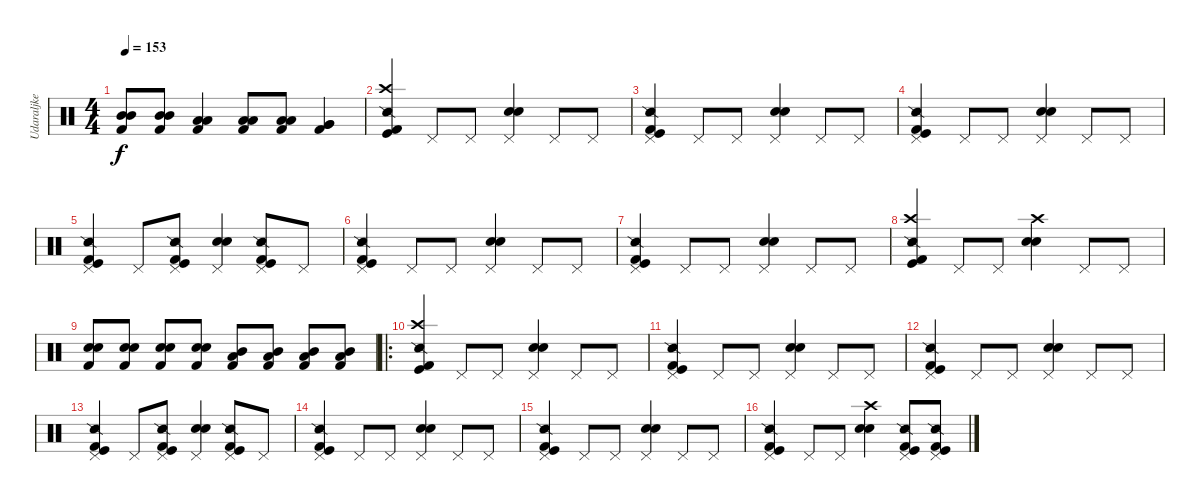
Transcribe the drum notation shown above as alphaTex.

\track ("Udaraljke" "Udaraljke") {instrument percussion}
\staff {score}
\articulation defaults
\ts (4 4)
\tempo 153
\clef neutral
\ks c
("Mid Tom (hit)" "Mid Tom (hit)" "Kick (hit) 2").8{dy f} ("Mid Tom (hit)" "Mid Tom (hit)" "Kick (hit) 2").8 ("Low Tom (hit)" "Low Tom (hit)" "Kick (hit) 2").4 ("Low Tom (hit)" "Low Tom (hit)" "Kick (hit) 2").8 ("Low Tom (hit)" "Low Tom (hit)" "Kick (hit) 2").8 ("Very Low Tom (hit)" "Very Low Tom (hit)" "Kick (hit) 2").4 |
("Crash high (hit)" "Kick (hit) 2" "Kick (hit)" "Snare (side stick) 2").4 "Pedal Hi-Hat (hit)".8 "Pedal Hi-Hat (hit)".8 ("Pedal Hi-Hat (hit)" "Electric Snare (hit)" "Snare (hit) 2").4 "Pedal Hi-Hat (hit)".8 "Pedal Hi-Hat (hit)".8 |
("Pedal Hi-Hat (hit)" "Kick (hit) 2" "Kick (hit)" "Snare (side stick) 2").4 "Pedal Hi-Hat (hit)".8 "Pedal Hi-Hat (hit)".8 ("Pedal Hi-Hat (hit)" "Electric Snare (hit)" "Snare (hit) 2").4 "Pedal Hi-Hat (hit)".8 "Pedal Hi-Hat (hit)".8 |
("Pedal Hi-Hat (hit)" "Kick (hit) 2" "Kick (hit)" "Snare (side stick) 2").4 "Pedal Hi-Hat (hit)".8 "Pedal Hi-Hat (hit)".8 ("Pedal Hi-Hat (hit)" "Electric Snare (hit)" "Snare (hit) 2").4 "Pedal Hi-Hat (hit)".8 "Pedal Hi-Hat (hit)".8 |
("Pedal Hi-Hat (hit)" "Kick (hit) 2" "Kick (hit)" "Snare (side stick) 2").4 "Pedal Hi-Hat (hit)".8 ("Pedal Hi-Hat (hit)" "Kick (hit) 2" "Kick (hit)" "Snare (side stick) 2").8 ("Pedal Hi-Hat (hit)" "Electric Snare (hit)" "Snare (hit) 2").4 ("Pedal Hi-Hat (hit)" "Kick (hit) 2" "Kick (hit)" "Snare (side stick) 2").8 "Pedal Hi-Hat (hit)".8 |
("Pedal Hi-Hat (hit)" "Kick (hit) 2" "Kick (hit)" "Snare (side stick) 2").4 "Pedal Hi-Hat (hit)".8 "Pedal Hi-Hat (hit)".8 ("Pedal Hi-Hat (hit)" "Electric Snare (hit)" "Snare (hit) 2").4 "Pedal Hi-Hat (hit)".8 "Pedal Hi-Hat (hit)".8 |
("Pedal Hi-Hat (hit)" "Kick (hit) 2" "Kick (hit)" "Snare (side stick) 2").4 "Pedal Hi-Hat (hit)".8 "Pedal Hi-Hat (hit)".8 ("Pedal Hi-Hat (hit)" "Electric Snare (hit)" "Snare (hit) 2").4 "Pedal Hi-Hat (hit)".8 "Pedal Hi-Hat (hit)".8 |
("Crash high (hit)" "Kick (hit) 2" "Kick (hit)" "Snare (side stick) 2").4 "Pedal Hi-Hat (hit)".8 "Pedal Hi-Hat (hit)".8 ("Crash high (hit)" "Electric Snare (hit)" "Snare (hit) 2").4 "Pedal Hi-Hat (hit)".8 "Pedal Hi-Hat (hit)".8 |
("Electric Snare (hit)" "Snare (hit) 2" "Kick (hit) 2").8 ("Electric Snare (hit)" "Snare (hit) 2" "Kick (hit) 2").8 ("Electric Snare (hit)" "Snare (hit) 2" "Kick (hit) 2").8 ("Electric Snare (hit)" "Snare (hit) 2" "Kick (hit) 2").8 ("Mid Tom (hit)" "Low Tom (hit)" "Kick (hit) 2").8 ("Mid Tom (hit)" "Low Tom (hit)" "Kick (hit) 2").8 ("Mid Tom (hit)" "Low Tom (hit)" "Kick (hit) 2").8 ("Mid Tom (hit)" "Low Tom (hit)" "Kick (hit) 2").8 |
\ro
("Crash high (hit)" "Kick (hit) 2" "Kick (hit)" "Snare (side stick) 2").4 "Pedal Hi-Hat (hit)".8 "Pedal Hi-Hat (hit)".8 ("Pedal Hi-Hat (hit)" "Electric Snare (hit)" "Snare (hit) 2").4 "Pedal Hi-Hat (hit)".8 "Pedal Hi-Hat (hit)".8 |
("Pedal Hi-Hat (hit)" "Kick (hit) 2" "Kick (hit)" "Snare (side stick) 2").4 "Pedal Hi-Hat (hit)".8 "Pedal Hi-Hat (hit)".8 ("Pedal Hi-Hat (hit)" "Electric Snare (hit)" "Snare (hit) 2").4 "Pedal Hi-Hat (hit)".8 "Pedal Hi-Hat (hit)".8 |
("Pedal Hi-Hat (hit)" "Kick (hit) 2" "Kick (hit)" "Snare (side stick) 2").4 "Pedal Hi-Hat (hit)".8 "Pedal Hi-Hat (hit)".8 ("Pedal Hi-Hat (hit)" "Electric Snare (hit)" "Snare (hit) 2").4 "Pedal Hi-Hat (hit)".8 "Pedal Hi-Hat (hit)".8 |
("Pedal Hi-Hat (hit)" "Kick (hit) 2" "Kick (hit)" "Snare (side stick) 2").4 "Pedal Hi-Hat (hit)".8 ("Pedal Hi-Hat (hit)" "Kick (hit) 2" "Kick (hit)" "Snare (side stick) 2").8 ("Pedal Hi-Hat (hit)" "Electric Snare (hit)" "Snare (hit) 2").4 ("Pedal Hi-Hat (hit)" "Kick (hit) 2" "Kick (hit)" "Snare (side stick) 2").8 "Pedal Hi-Hat (hit)".8 |
("Pedal Hi-Hat (hit)" "Kick (hit) 2" "Kick (hit)" "Snare (side stick) 2").4 "Pedal Hi-Hat (hit)".8 "Pedal Hi-Hat (hit)".8 ("Pedal Hi-Hat (hit)" "Electric Snare (hit)" "Snare (hit) 2").4 "Pedal Hi-Hat (hit)".8 "Pedal Hi-Hat (hit)".8 |
("Pedal Hi-Hat (hit)" "Kick (hit) 2" "Kick (hit)" "Snare (side stick) 2").4 "Pedal Hi-Hat (hit)".8 "Pedal Hi-Hat (hit)".8 ("Pedal Hi-Hat (hit)" "Electric Snare (hit)" "Snare (hit) 2").4 "Pedal Hi-Hat (hit)".8 "Pedal Hi-Hat (hit)".8 |
("Pedal Hi-Hat (hit)" "Kick (hit) 2" "Kick (hit)" "Snare (side stick) 2").4 "Pedal Hi-Hat (hit)".8 "Pedal Hi-Hat (hit)".8 ("Crash high (hit)" "Electric Snare (hit)" "Snare (hit) 2").4 ("Pedal Hi-Hat (hit)" "Kick (hit) 2" "Kick (hit)" "Snare (side stick) 2").8 ("Pedal Hi-Hat (hit)" "Kick (hit) 2" "Kick (hit)" "Snare (side stick) 2").8
